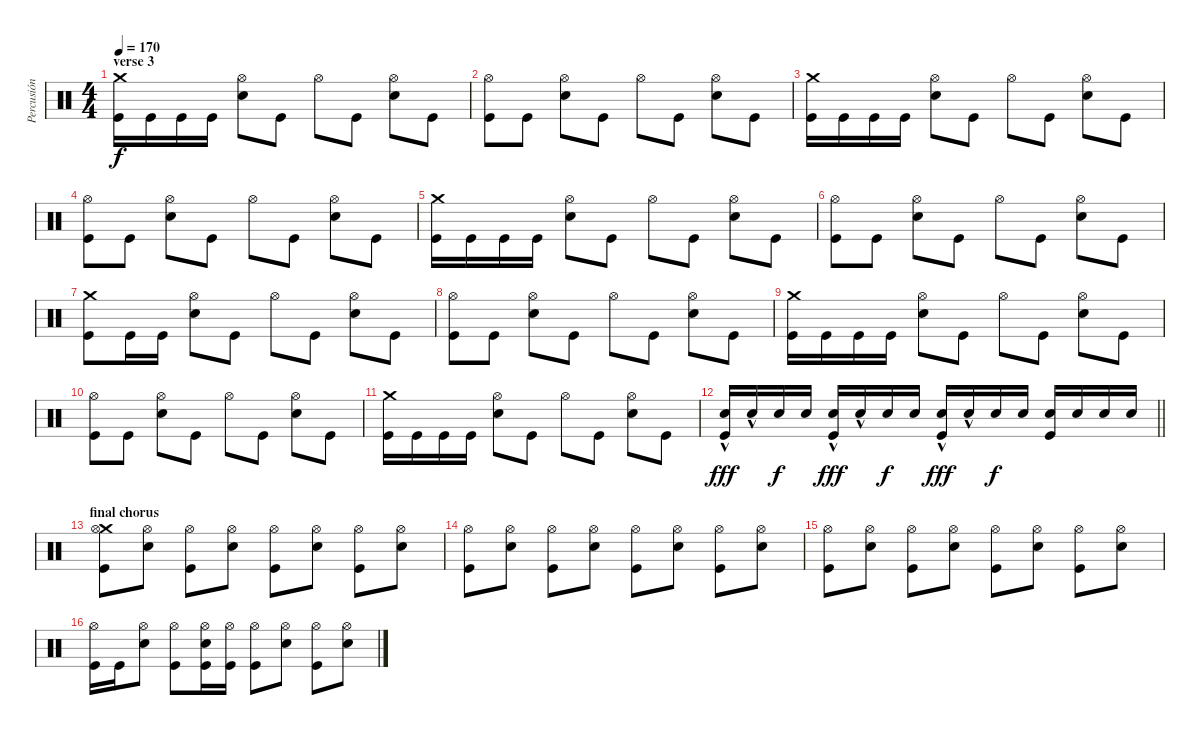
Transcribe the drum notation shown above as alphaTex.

\track ("Percusión" "Percusión") {instrument percussion}
\staff {score}
\articulation defaults
\ts (4 4)
\section ("" "verse 3")
\tempo 170
\clef neutral
\ks c
("Crash medium (hit)" "Kick (hit)").16{dy f} "Kick (hit)".16 "Kick (hit)".16 "Kick (hit)".16 ("Hi-Hat (open)" "Electric Snare (hit)").8 "Kick (hit)".8 "Hi-Hat (open)".8 "Kick (hit)".8 ("Hi-Hat (open)" "Electric Snare (hit)").8 "Kick (hit)".8 |
("Hi-Hat (open)" "Kick (hit)").8 "Kick (hit)".8 ("Hi-Hat (open)" "Electric Snare (hit)").8 "Kick (hit)".8 "Hi-Hat (open)".8 "Kick (hit)".8 ("Hi-Hat (open)" "Electric Snare (hit)").8 "Kick (hit)".8 |
("Crash medium (hit)" "Kick (hit)").16 "Kick (hit)".16 "Kick (hit)".16 "Kick (hit)".16 ("Hi-Hat (open)" "Electric Snare (hit)").8 "Kick (hit)".8 "Hi-Hat (open)".8 "Kick (hit)".8 ("Hi-Hat (open)" "Electric Snare (hit)").8 "Kick (hit)".8 |
("Hi-Hat (open)" "Kick (hit)").8 "Kick (hit)".8 ("Hi-Hat (open)" "Electric Snare (hit)").8 "Kick (hit)".8 "Hi-Hat (open)".8 "Kick (hit)".8 ("Hi-Hat (open)" "Electric Snare (hit)").8 "Kick (hit)".8 |
("Crash medium (hit)" "Kick (hit)").16 "Kick (hit)".16 "Kick (hit)".16 "Kick (hit)".16 ("Hi-Hat (open)" "Electric Snare (hit)").8 "Kick (hit)".8 "Hi-Hat (open)".8 "Kick (hit)".8 ("Hi-Hat (open)" "Electric Snare (hit)").8 "Kick (hit)".8 |
("Hi-Hat (open)" "Kick (hit)").8 "Kick (hit)".8 ("Hi-Hat (open)" "Electric Snare (hit)").8 "Kick (hit)".8 "Hi-Hat (open)".8 "Kick (hit)".8 ("Hi-Hat (open)" "Electric Snare (hit)").8 "Kick (hit)".8 |
("Crash medium (hit)" "Kick (hit)").8 "Kick (hit)".16 "Kick (hit)".16 ("Hi-Hat (open)" "Electric Snare (hit)").8 "Kick (hit)".8 "Hi-Hat (open)".8 "Kick (hit)".8 ("Hi-Hat (open)" "Electric Snare (hit)").8 "Kick (hit)".8 |
("Hi-Hat (open)" "Kick (hit)").8 "Kick (hit)".8 ("Hi-Hat (open)" "Electric Snare (hit)").8 "Kick (hit)".8 "Hi-Hat (open)".8 "Kick (hit)".8 ("Hi-Hat (open)" "Electric Snare (hit)").8 "Kick (hit)".8 |
("Crash medium (hit)" "Kick (hit)").16 "Kick (hit)".16 "Kick (hit)".16 "Kick (hit)".16 ("Hi-Hat (open)" "Electric Snare (hit)").8 "Kick (hit)".8 "Hi-Hat (open)".8 "Kick (hit)".8 ("Hi-Hat (open)" "Electric Snare (hit)").8 "Kick (hit)".8 |
("Hi-Hat (open)" "Kick (hit)").8 "Kick (hit)".8 ("Hi-Hat (open)" "Electric Snare (hit)").8 "Kick (hit)".8 "Hi-Hat (open)".8 "Kick (hit)".8 ("Hi-Hat (open)" "Electric Snare (hit)").8 "Kick (hit)".8 |
("Crash medium (hit)" "Kick (hit)").16 "Kick (hit)".16 "Kick (hit)".16 "Kick (hit)".16 ("Hi-Hat (open)" "Electric Snare (hit)").8 "Kick (hit)".8 "Hi-Hat (open)".8 "Kick (hit)".8 ("Hi-Hat (open)" "Electric Snare (hit)").8 "Kick (hit)".8 |
\barLineRight lightlight
("Electric Snare (hit)"{hac} "Kick (hit)").16{dy fff} "Electric Snare (hit)"{hac}.16 "Electric Snare (hit)".16{dy f} "Electric Snare (hit)".16 ("Electric Snare (hit)"{hac} "Kick (hit)").16{dy fff} "Electric Snare (hit)"{hac}.16 "Electric Snare (hit)".16{dy f} "Electric Snare (hit)".16 ("Electric Snare (hit)"{hac} "Kick (hit)").16{dy fff} "Electric Snare (hit)"{hac}.16 "Electric Snare (hit)".16{dy f} "Electric Snare (hit)".16 ("Electric Snare (hit)" "Kick (hit)").16 "Electric Snare (hit)".16 "Electric Snare (hit)".16 "Electric Snare (hit)".16 |
\section ("" "final chorus")
("Crash medium (hit)" "Hi-Hat (open)" "Kick (hit)").8 ("Hi-Hat (open)" "Electric Snare (hit)").8 ("Hi-Hat (open)" "Kick (hit)").8 ("Hi-Hat (open)" "Electric Snare (hit)").8 ("Hi-Hat (open)" "Kick (hit)").8 ("Hi-Hat (open)" "Electric Snare (hit)").8 ("Hi-Hat (open)" "Kick (hit)").8 ("Hi-Hat (open)" "Electric Snare (hit)").8 |
("Hi-Hat (open)" "Kick (hit)").8 ("Hi-Hat (open)" "Electric Snare (hit)").8 ("Hi-Hat (open)" "Kick (hit)").8 ("Hi-Hat (open)" "Electric Snare (hit)").8 ("Hi-Hat (open)" "Kick (hit)").8 ("Hi-Hat (open)" "Electric Snare (hit)").8 ("Hi-Hat (open)" "Kick (hit)").8 ("Hi-Hat (open)" "Electric Snare (hit)").8 |
("Hi-Hat (open)" "Kick (hit)").8 ("Hi-Hat (open)" "Electric Snare (hit)").8 ("Hi-Hat (open)" "Kick (hit)").8 ("Hi-Hat (open)" "Electric Snare (hit)").8 ("Hi-Hat (open)" "Kick (hit)").8 ("Hi-Hat (open)" "Electric Snare (hit)").8 ("Hi-Hat (open)" "Kick (hit)").8 ("Hi-Hat (open)" "Electric Snare (hit)").8 |
("Hi-Hat (open)" "Kick (hit)").16 "Kick (hit)".16 ("Hi-Hat (open)" "Electric Snare (hit)").8 ("Hi-Hat (open)" "Kick (hit)").8 ("Hi-Hat (open)" "Electric Snare (hit)" "Kick (hit)").16 ("Hi-Hat (open)" "Kick (hit)").16 ("Hi-Hat (open)" "Kick (hit)").8 ("Hi-Hat (open)" "Electric Snare (hit)").8 ("Hi-Hat (open)" "Kick (hit)").8 ("Hi-Hat (open)" "Electric Snare (hit)").8
